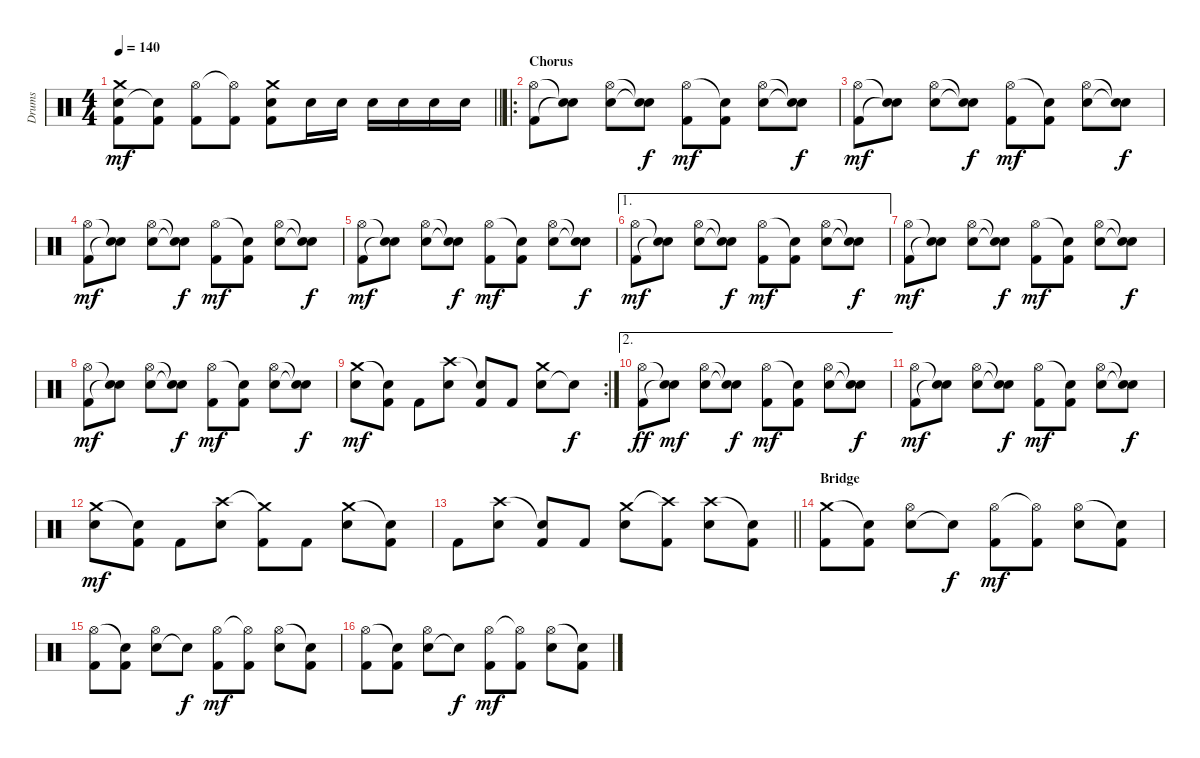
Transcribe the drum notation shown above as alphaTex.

\track ("Drums" "Drums") {instrument percussion}
\staff {score}
\articulation defaults
\ts (4 4)
\tempo 140
\clef neutral
\barLineRight lightlight
\ks c
("Kick (hit) 2" "Snare (hit) 2" "Crash medium (hit)").8{dy mf} ("Kick (hit) 2" "Snare (hit)"{t}).8 ("Kick (hit) 2" "Hi-Hat (open)").8 ("Kick (hit) 2" "Hi-Hat (open)"{t}).8 ("Kick (hit) 2" "Snare (hit) 2" "Crash medium (hit)").8 "Snare (hit) 2".16 "Snare (hit) 2".16 "Snare (hit) 2".16 "Snare (hit) 2".16 "Snare (hit) 2".16 "Snare (hit) 2".16 |
\ro
\section ("" "Chorus")
("Kick (hit) 2" "Hi-Hat (open)").8 ("Snare (hit)"{t} "Snare (hit)"{t}).8 ("Snare (hit) 2" "Hi-Hat (open)").8 ("Snare (hit)"{t} "Snare (hit)"{t}).8{dy f} ("Kick (hit) 2" "Hi-Hat (open)").8{dy mf} ("Kick (hit) 2" "Snare (hit)"{t}).8 ("Snare (hit) 2" "Hi-Hat (open)").8 ("Snare (hit)"{t} "Snare (hit)"{t}).8{dy f} |
("Kick (hit) 2" "Hi-Hat (open)").8{dy mf} ("Snare (hit)"{t} "Snare (hit)"{t}).8 ("Snare (hit) 2" "Hi-Hat (open)").8 ("Snare (hit)"{t} "Snare (hit)"{t}).8{dy f} ("Kick (hit) 2" "Hi-Hat (open)").8{dy mf} ("Kick (hit) 2" "Snare (hit)"{t}).8 ("Snare (hit) 2" "Hi-Hat (open)").8 ("Snare (hit)"{t} "Snare (hit)"{t}).8{dy f} |
("Kick (hit) 2" "Hi-Hat (open)").8{dy mf} ("Snare (hit)"{t} "Snare (hit)"{t}).8 ("Snare (hit) 2" "Hi-Hat (open)").8 ("Snare (hit)"{t} "Snare (hit)"{t}).8{dy f} ("Kick (hit) 2" "Hi-Hat (open)").8{dy mf} ("Kick (hit) 2" "Snare (hit)"{t}).8 ("Snare (hit) 2" "Hi-Hat (open)").8 ("Snare (hit)"{t} "Snare (hit)"{t}).8{dy f} |
("Kick (hit) 2" "Hi-Hat (open)").8{dy mf} ("Snare (hit)"{t} "Snare (hit)"{t}).8 ("Snare (hit) 2" "Hi-Hat (open)").8 ("Snare (hit)"{t} "Snare (hit)"{t}).8{dy f} ("Kick (hit) 2" "Hi-Hat (open)").8{dy mf} ("Kick (hit) 2" "Snare (hit)"{t}).8 ("Snare (hit) 2" "Hi-Hat (open)").8 ("Snare (hit)"{t} "Snare (hit)"{t}).8{dy f} |
\ae 1
("Kick (hit) 2" "Hi-Hat (open)").8{dy mf} ("Snare (hit)"{t} "Snare (hit)"{t}).8 ("Snare (hit) 2" "Hi-Hat (open)").8 ("Snare (hit)"{t} "Snare (hit)"{t}).8{dy f} ("Kick (hit) 2" "Hi-Hat (open)").8{dy mf} ("Kick (hit) 2" "Snare (hit)"{t}).8 ("Snare (hit) 2" "Hi-Hat (open)").8 ("Snare (hit)"{t} "Snare (hit)"{t}).8{dy f} |
("Kick (hit) 2" "Hi-Hat (open)").8{dy mf} ("Snare (hit)"{t} "Snare (hit)"{t}).8 ("Snare (hit) 2" "Hi-Hat (open)").8 ("Snare (hit)"{t} "Snare (hit)"{t}).8{dy f} ("Kick (hit) 2" "Hi-Hat (open)").8{dy mf} ("Kick (hit) 2" "Snare (hit)"{t}).8 ("Snare (hit) 2" "Hi-Hat (open)").8 ("Snare (hit)"{t} "Snare (hit)"{t}).8{dy f} |
("Kick (hit) 2" "Hi-Hat (open)").8{dy mf} ("Snare (hit)"{t} "Snare (hit)"{t}).8 ("Snare (hit) 2" "Hi-Hat (open)").8 ("Snare (hit)"{t} "Snare (hit)"{t}).8{dy f} ("Kick (hit) 2" "Hi-Hat (open)").8{dy mf} ("Kick (hit) 2" "Snare (hit)"{t}).8 ("Snare (hit) 2" "Hi-Hat (open)").8 ("Snare (hit)"{t} "Snare (hit)"{t}).8{dy f} |
\rc 2
("Snare (hit) 2" "Crash medium (hit)").8{dy mf} ("Kick (hit) 2" "Snare (hit)"{t}).8 "Kick (hit) 2".8 ("Snare (hit) 2" "Crash high (hit)").8 ("Kick (hit) 2" "Snare (hit)"{t}).8 "Kick (hit) 2".8 ("Snare (hit) 2" "Crash medium (hit)").8 "Snare (hit)"{t}.8{dy f} |
\ae 2
("Kick (hit) 2" "Hi-Hat (open)").8{dy ff} ("Snare (hit)"{t} "Snare (hit)"{t}).8{dy mf} ("Snare (hit) 2" "Hi-Hat (open)").8 ("Snare (hit)"{t} "Snare (hit)"{t}).8{dy f} ("Kick (hit) 2" "Hi-Hat (open)").8{dy mf} ("Kick (hit) 2" "Snare (hit)"{t}).8 ("Snare (hit) 2" "Hi-Hat (open)").8 ("Snare (hit)"{t} "Snare (hit)"{t}).8{dy f} |
("Kick (hit) 2" "Hi-Hat (open)").8{dy mf} ("Snare (hit)"{t} "Snare (hit)"{t}).8 ("Snare (hit) 2" "Hi-Hat (open)").8 ("Snare (hit)"{t} "Snare (hit)"{t}).8{dy f} ("Kick (hit) 2" "Hi-Hat (open)").8{dy mf} ("Kick (hit) 2" "Snare (hit)"{t}).8 ("Snare (hit) 2" "Hi-Hat (open)").8 ("Snare (hit)"{t} "Snare (hit)"{t}).8{dy f} |
("Snare (hit) 2" "Crash medium (hit)").8{dy mf} ("Kick (hit) 2" "Snare (hit)"{t}).8 "Kick (hit) 2".8 ("Snare (hit) 2" "Crash high (hit)").8 ("Kick (hit) 2" "Crash medium (hit)"{t}).8 "Kick (hit) 2".8 ("Snare (hit) 2" "Crash medium (hit)").8 ("Kick (hit) 2" "Snare (hit)"{t}).8 |
\barLineRight lightlight "Kick (hit) 2".8
("Snare (hit) 2" "Crash high (hit)").8 ("Kick (hit) 2" "Snare (hit)"{t}).8 "Kick (hit) 2".8 ("Snare (hit) 2" "Crash medium (hit)").8 ("Kick (hit) 2" "Crash high (hit)"{t}).8 ("Snare (hit) 2" "Crash high (hit)").8 ("Kick (hit) 2" "Snare (hit)"{t}).8 |
\section ("" "Bridge")
("Kick (hit) 2" "Crash medium (hit)").8 ("Kick (hit) 2" "Snare (hit)"{t}).8 ("Snare (hit) 2" "Hi-Hat (open)").8 "Snare (hit)"{t}.8{dy f} ("Kick (hit) 2" "Hi-Hat (open)").8{dy mf} ("Kick (hit) 2" "Hi-Hat (open)"{t}).8 ("Snare (hit) 2" "Hi-Hat (open)").8 ("Kick (hit) 2" "Snare (hit)"{t}).8 |
("Kick (hit) 2" "Hi-Hat (open)").8 ("Kick (hit) 2" "Snare (hit)"{t}).8 ("Snare (hit) 2" "Hi-Hat (open)").8 "Snare (hit)"{t}.8{dy f} ("Kick (hit) 2" "Hi-Hat (open)").8{dy mf} ("Kick (hit) 2" "Hi-Hat (open)"{t}).8 ("Snare (hit) 2" "Hi-Hat (open)").8 ("Kick (hit) 2" "Snare (hit)"{t}).8 |
("Kick (hit) 2" "Hi-Hat (open)").8 ("Kick (hit) 2" "Snare (hit)"{t}).8 ("Snare (hit) 2" "Hi-Hat (open)").8 "Snare (hit)"{t}.8{dy f} ("Kick (hit) 2" "Hi-Hat (open)").8{dy mf} ("Kick (hit) 2" "Hi-Hat (open)"{t}).8 ("Snare (hit) 2" "Hi-Hat (open)").8 ("Kick (hit) 2" "Snare (hit)"{t}).8
